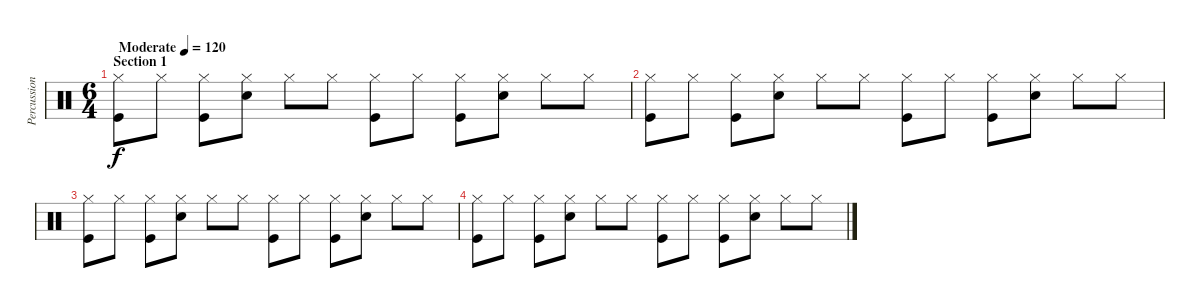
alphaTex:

\track ("Percussion" "Percussion") {instrument percussion}
\staff {score}
\articulation defaults
\ts (6 4)
\section ("" "Section 1")
\tempo (120 "Moderate")
\clef neutral
\ks c
("Kick (hit)" "Hi-Hat (closed)").8{dy f} "Hi-Hat (closed)".8 ("Kick (hit)" "Hi-Hat (closed)").8 ("Snare (hit) 2" "Hi-Hat (closed)").8 "Hi-Hat (closed)".8 "Hi-Hat (closed)".8 ("Kick (hit)" "Hi-Hat (closed)").8 "Hi-Hat (closed)".8 ("Kick (hit)" "Hi-Hat (closed)").8 ("Snare (hit) 2" "Hi-Hat (closed)").8 "Hi-Hat (closed)".8 "Hi-Hat (closed)".8 |
("Kick (hit)" "Hi-Hat (closed)").8 "Hi-Hat (closed)".8 ("Kick (hit)" "Hi-Hat (closed)").8 ("Snare (hit) 2" "Hi-Hat (closed)").8 "Hi-Hat (closed)".8 "Hi-Hat (closed)".8 ("Kick (hit)" "Hi-Hat (closed)").8 "Hi-Hat (closed)".8 ("Kick (hit)" "Hi-Hat (closed)").8 ("Snare (hit) 2" "Hi-Hat (closed)").8 "Hi-Hat (closed)".8 "Hi-Hat (closed)".8 |
("Kick (hit)" "Hi-Hat (closed)").8 "Hi-Hat (closed)".8 ("Kick (hit)" "Hi-Hat (closed)").8 ("Snare (hit) 2" "Hi-Hat (closed)").8 "Hi-Hat (closed)".8 "Hi-Hat (closed)".8 ("Kick (hit)" "Hi-Hat (closed)").8 "Hi-Hat (closed)".8 ("Kick (hit)" "Hi-Hat (closed)").8 ("Snare (hit) 2" "Hi-Hat (closed)").8 "Hi-Hat (closed)".8 "Hi-Hat (closed)".8 |
("Kick (hit)" "Hi-Hat (closed)").8 "Hi-Hat (closed)".8 ("Kick (hit)" "Hi-Hat (closed)").8 ("Snare (hit) 2" "Hi-Hat (closed)").8 "Hi-Hat (closed)".8 "Hi-Hat (closed)".8 ("Kick (hit)" "Hi-Hat (closed)").8 "Hi-Hat (closed)".8 ("Kick (hit)" "Hi-Hat (closed)").8 ("Snare (hit) 2" "Hi-Hat (closed)").8 "Hi-Hat (closed)".8 "Hi-Hat (closed)".8
